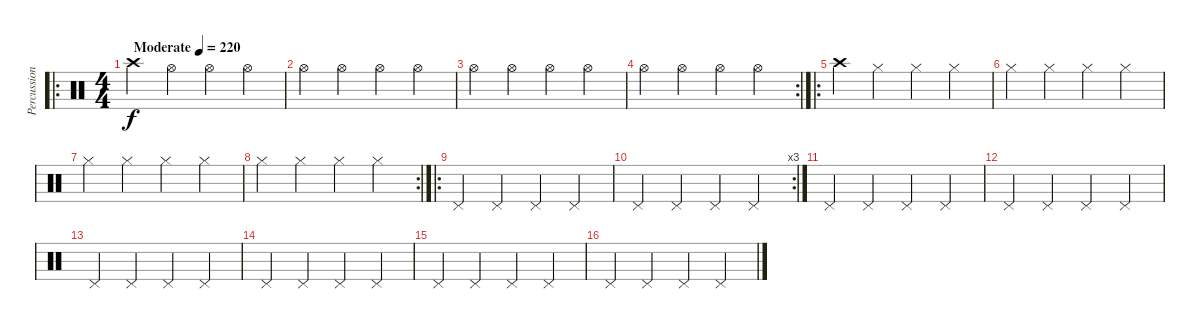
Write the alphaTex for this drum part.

\track ("Percussion" "Percussion") {instrument percussion}
\staff {score}
\articulation defaults
\ro
\ts (4 4)
\tempo (220 "Moderate")
\clef neutral
\ks c "Crash high (hit)".4{dy f} "Hi-Hat (open)".4 "Hi-Hat (open)".4 "Hi-Hat (open)".4
|
"Hi-Hat (open)".4 "Hi-Hat (open)".4 "Hi-Hat (open)".4 "Hi-Hat (open)".4 |
"Hi-Hat (open)".4 "Hi-Hat (open)".4 "Hi-Hat (open)".4 "Hi-Hat (open)".4 |
\rc 2 "Hi-Hat (open)".4 "Hi-Hat (open)".4 "Hi-Hat (open)".4 "Hi-Hat (open)".4
|
\ro "Crash high (hit)".4 "Hi-Hat (closed)".4 "Hi-Hat (closed)".4 "Hi-Hat (closed)".4
|
"Hi-Hat (closed)".4 "Hi-Hat (closed)".4 "Hi-Hat (closed)".4 "Hi-Hat (closed)".4 |
"Hi-Hat (closed)".4 "Hi-Hat (closed)".4 "Hi-Hat (closed)".4 "Hi-Hat (closed)".4 |
\rc 2 "Hi-Hat (closed)".4 "Hi-Hat (closed)".4 "Hi-Hat (closed)".4 "Hi-Hat (closed)".4
|
\ro "Pedal Hi-Hat (hit)".4 "Pedal Hi-Hat (hit)".4 "Pedal Hi-Hat (hit)".4 "Pedal Hi-Hat (hit)".4
|
\rc 3 "Pedal Hi-Hat (hit)".4 "Pedal Hi-Hat (hit)".4 "Pedal Hi-Hat (hit)".4 "Pedal Hi-Hat (hit)".4
|
"Pedal Hi-Hat (hit)".4 "Pedal Hi-Hat (hit)".4 "Pedal Hi-Hat (hit)".4 "Pedal Hi-Hat (hit)".4 |
"Pedal Hi-Hat (hit)".4 "Pedal Hi-Hat (hit)".4 "Pedal Hi-Hat (hit)".4 "Pedal Hi-Hat (hit)".4 |
"Pedal Hi-Hat (hit)".4 "Pedal Hi-Hat (hit)".4 "Pedal Hi-Hat (hit)".4 "Pedal Hi-Hat (hit)".4 |
"Pedal Hi-Hat (hit)".4 "Pedal Hi-Hat (hit)".4 "Pedal Hi-Hat (hit)".4 "Pedal Hi-Hat (hit)".4 |
"Pedal Hi-Hat (hit)".4 "Pedal Hi-Hat (hit)".4 "Pedal Hi-Hat (hit)".4 "Pedal Hi-Hat (hit)".4 |
"Pedal Hi-Hat (hit)".4 "Pedal Hi-Hat (hit)".4 "Pedal Hi-Hat (hit)".4 "Pedal Hi-Hat (hit)".4
